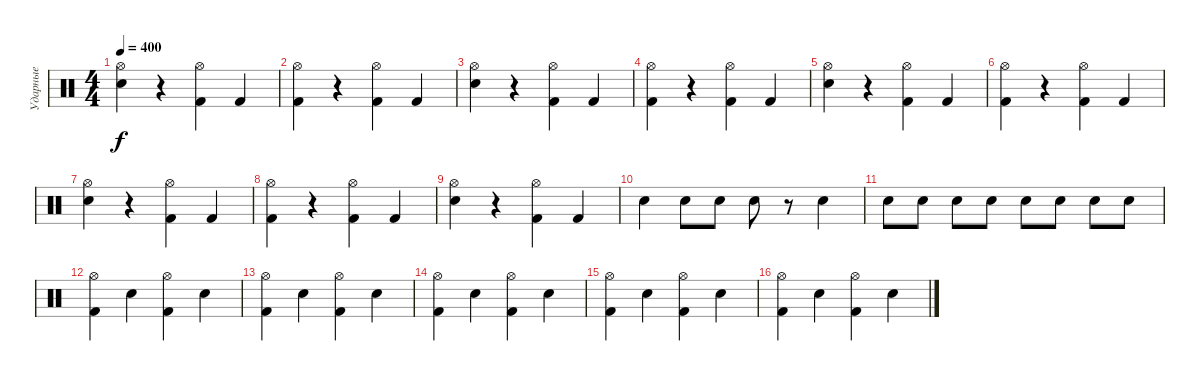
\track ("Ударные" "Ударные") {instrument percussion}
\staff {score}
\articulation defaults
\ts (4 4)
\tempo 400
\clef neutral
\ks c
("Electric Snare (hit)" "Hi-Hat (open)").4{dy f} r.4 ("Kick (hit) 2" "Hi-Hat (open)").4 "Kick (hit) 2".4 |
("Kick (hit) 2" "Hi-Hat (open)").4 r.4 ("Kick (hit) 2" "Hi-Hat (open)").4 "Kick (hit) 2".4 |
("Electric Snare (hit)" "Hi-Hat (open)").4 r.4 ("Kick (hit) 2" "Hi-Hat (open)").4 "Kick (hit) 2".4 |
("Kick (hit) 2" "Hi-Hat (open)").4 r.4 ("Kick (hit) 2" "Hi-Hat (open)").4 "Kick (hit) 2".4 |
("Electric Snare (hit)" "Hi-Hat (open)").4 r.4 ("Kick (hit) 2" "Hi-Hat (open)").4 "Kick (hit) 2".4 |
("Kick (hit) 2" "Hi-Hat (open)").4 r.4 ("Kick (hit) 2" "Hi-Hat (open)").4 "Kick (hit) 2".4 |
("Electric Snare (hit)" "Hi-Hat (open)").4 r.4 ("Kick (hit) 2" "Hi-Hat (open)").4 "Kick (hit) 2".4 |
("Kick (hit) 2" "Hi-Hat (open)").4 r.4 ("Kick (hit) 2" "Hi-Hat (open)").4 "Kick (hit) 2".4 |
("Electric Snare (hit)" "Hi-Hat (open)").4 r.4 ("Kick (hit) 2" "Hi-Hat (open)").4 "Kick (hit) 2".4 |
"Snare (hit) 2".4 "Electric Snare (hit)".8 "Electric Snare (hit)".8 "Electric Snare (hit)".8 r.8 "Snare (hit) 2".4 |
"Electric Snare (hit)".8 "Electric Snare (hit)".8 "Electric Snare (hit)".8 "Electric Snare (hit)".8 "Snare (hit) 2".8 "Snare (hit) 2".8 "Snare (hit) 2".8 "Snare (hit) 2".8 |
("Kick (hit) 2" "Hi-Hat (open)").4 "Electric Snare (hit)".4 ("Kick (hit) 2" "Hi-Hat (open)").4 "Electric Snare (hit)".4 |
("Kick (hit) 2" "Hi-Hat (open)").4 "Electric Snare (hit)".4 ("Kick (hit) 2" "Hi-Hat (open)").4 "Electric Snare (hit)".4 |
("Kick (hit) 2" "Hi-Hat (open)").4 "Electric Snare (hit)".4 ("Kick (hit) 2" "Hi-Hat (open)").4 "Electric Snare (hit)".4 |
("Kick (hit) 2" "Hi-Hat (open)").4 "Electric Snare (hit)".4 ("Kick (hit) 2" "Hi-Hat (open)").4 "Electric Snare (hit)".4 |
("Kick (hit) 2" "Hi-Hat (open)").4 "Electric Snare (hit)".4 ("Kick (hit) 2" "Hi-Hat (open)").4 "Electric Snare (hit)".4
